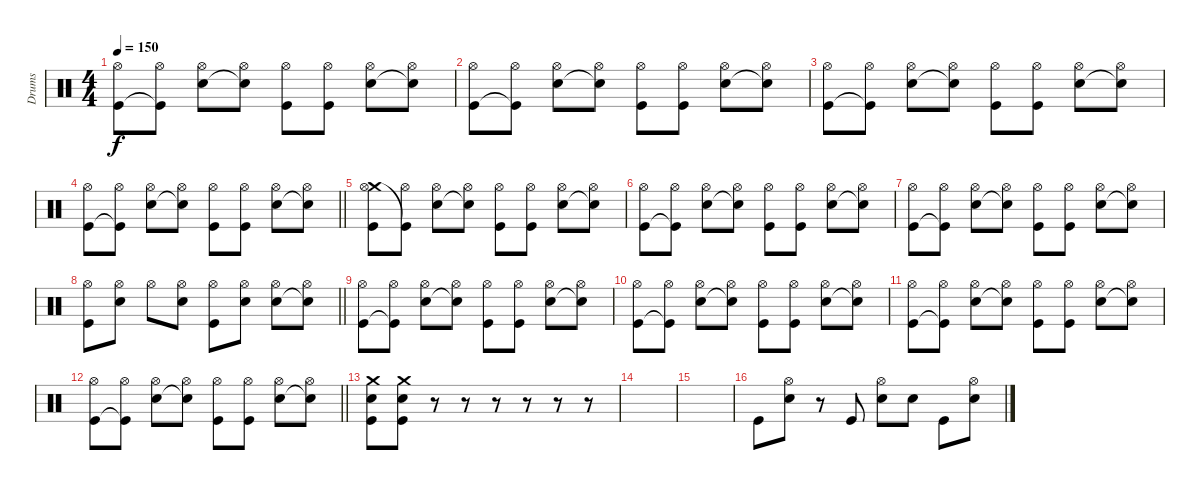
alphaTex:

\track ("Drums" "Drums") {instrument percussion}
\staff {score}
\articulation defaults
\ts (4 4)
\tempo 150
\clef neutral
\ks c
("Hi-Hat (open)" "Kick (hit)").8{dy f} ("Hi-Hat (open)" "Kick (hit)"{t}).8 ("Hi-Hat (open)" "Electric Snare (hit)").8 ("Hi-Hat (open)" "Snare (hit)"{t}).8 ("Hi-Hat (open)" "Kick (hit)").8 ("Hi-Hat (open)" "Kick (hit)").8 ("Hi-Hat (open)" "Electric Snare (hit)").8 ("Hi-Hat (open)" "Snare (hit)"{t}).8 |
("Hi-Hat (open)" "Kick (hit)").8 ("Hi-Hat (open)" "Kick (hit)"{t}).8 ("Hi-Hat (open)" "Electric Snare (hit)").8 ("Hi-Hat (open)" "Snare (hit)"{t}).8 ("Hi-Hat (open)" "Kick (hit)").8 ("Hi-Hat (open)" "Kick (hit)").8 ("Hi-Hat (open)" "Electric Snare (hit)").8 ("Hi-Hat (open)" "Snare (hit)"{t}).8 |
("Hi-Hat (open)" "Kick (hit)").8 ("Hi-Hat (open)" "Kick (hit)"{t}).8 ("Hi-Hat (open)" "Electric Snare (hit)").8 ("Hi-Hat (open)" "Snare (hit)"{t}).8 ("Hi-Hat (open)" "Kick (hit)").8 ("Hi-Hat (open)" "Kick (hit)").8 ("Hi-Hat (open)" "Electric Snare (hit)").8 ("Hi-Hat (open)" "Snare (hit)"{t}).8 |
\barLineRight lightlight
("Hi-Hat (open)" "Kick (hit)").8 ("Hi-Hat (open)" "Kick (hit)"{t}).8 ("Hi-Hat (open)" "Electric Snare (hit)").8 ("Hi-Hat (open)" "Snare (hit)"{t}).8 ("Hi-Hat (open)" "Kick (hit)").8 ("Hi-Hat (open)" "Kick (hit)").8 ("Hi-Hat (open)" "Electric Snare (hit)").8 ("Hi-Hat (open)" "Snare (hit)"{t}).8 |
("Crash medium (hit)" "Hi-Hat (open)" "Kick (hit)").8 ("Hi-Hat (open)" "Kick (hit)"{t}).8 ("Hi-Hat (open)" "Electric Snare (hit)").8 ("Hi-Hat (open)" "Snare (hit)"{t}).8 ("Hi-Hat (open)" "Kick (hit)").8 ("Hi-Hat (open)" "Kick (hit)").8 ("Hi-Hat (open)" "Electric Snare (hit)").8 ("Hi-Hat (open)" "Snare (hit)"{t}).8 |
("Hi-Hat (open)" "Kick (hit)").8 ("Hi-Hat (open)" "Kick (hit)"{t}).8 ("Hi-Hat (open)" "Electric Snare (hit)").8 ("Hi-Hat (open)" "Snare (hit)"{t}).8 ("Hi-Hat (open)" "Kick (hit)").8 ("Hi-Hat (open)" "Kick (hit)").8 ("Hi-Hat (open)" "Electric Snare (hit)").8 ("Hi-Hat (open)" "Snare (hit)"{t}).8 |
("Hi-Hat (open)" "Kick (hit)").8 ("Hi-Hat (open)" "Kick (hit)"{t}).8 ("Hi-Hat (open)" "Electric Snare (hit)").8 ("Hi-Hat (open)" "Snare (hit)"{t}).8 ("Hi-Hat (open)" "Kick (hit)").8 ("Hi-Hat (open)" "Kick (hit)").8 ("Hi-Hat (open)" "Electric Snare (hit)").8 ("Hi-Hat (open)" "Snare (hit)"{t}).8 |
\barLineRight lightlight
("Hi-Hat (open)" "Kick (hit)").8 ("Hi-Hat (open)" "Electric Snare (hit)").8 "Hi-Hat (open)".8 ("Hi-Hat (open)" "Electric Snare (hit)").8 ("Hi-Hat (open)" "Kick (hit)").8 ("Hi-Hat (open)" "Electric Snare (hit)").8 ("Hi-Hat (open)" "Electric Snare (hit)").8 ("Hi-Hat (open)" "Snare (hit)"{t}).8 |
("Hi-Hat (open)" "Kick (hit)").8 ("Hi-Hat (open)" "Kick (hit)"{t}).8 ("Hi-Hat (open)" "Electric Snare (hit)").8 ("Hi-Hat (open)" "Snare (hit)"{t}).8 ("Hi-Hat (open)" "Kick (hit)").8 ("Hi-Hat (open)" "Kick (hit)").8 ("Hi-Hat (open)" "Electric Snare (hit)").8 ("Hi-Hat (open)" "Snare (hit)"{t}).8 |
("Hi-Hat (open)" "Kick (hit)").8 ("Hi-Hat (open)" "Kick (hit)"{t}).8 ("Hi-Hat (open)" "Electric Snare (hit)").8 ("Hi-Hat (open)" "Snare (hit)"{t}).8 ("Hi-Hat (open)" "Kick (hit)").8 ("Hi-Hat (open)" "Kick (hit)").8 ("Hi-Hat (open)" "Electric Snare (hit)").8 ("Hi-Hat (open)" "Snare (hit)"{t}).8 |
("Hi-Hat (open)" "Kick (hit)").8 ("Hi-Hat (open)" "Kick (hit)"{t}).8 ("Hi-Hat (open)" "Electric Snare (hit)").8 ("Hi-Hat (open)" "Snare (hit)"{t}).8 ("Hi-Hat (open)" "Kick (hit)").8 ("Hi-Hat (open)" "Kick (hit)").8 ("Hi-Hat (open)" "Electric Snare (hit)").8 ("Hi-Hat (open)" "Snare (hit)"{t}).8 |
\barLineRight lightlight
("Hi-Hat (open)" "Kick (hit)").8 ("Hi-Hat (open)" "Kick (hit)"{t}).8 ("Hi-Hat (open)" "Electric Snare (hit)").8 ("Hi-Hat (open)" "Snare (hit)"{t}).8 ("Hi-Hat (open)" "Kick (hit)").8 ("Hi-Hat (open)" "Kick (hit)").8 ("Hi-Hat (open)" "Electric Snare (hit)").8 ("Hi-Hat (open)" "Snare (hit)"{t}).8 |
("Crash medium (hit)" "Electric Snare (hit)" "Kick (hit)").8 ("Crash medium (hit)" "Electric Snare (hit)" "Kick (hit)").8 r.8 r.8 r.8 r.8 r.8 r.8 |
|
|
"Kick (hit)".8 ("Hi-Hat (open)" "Electric Snare (hit)").8 r.8 "Kick (hit)".8 ("Hi-Hat (open)" "Electric Snare (hit)").8 "Electric Snare (hit)".8 "Kick (hit)".8 ("Hi-Hat (open)" "Electric Snare (hit)").8
